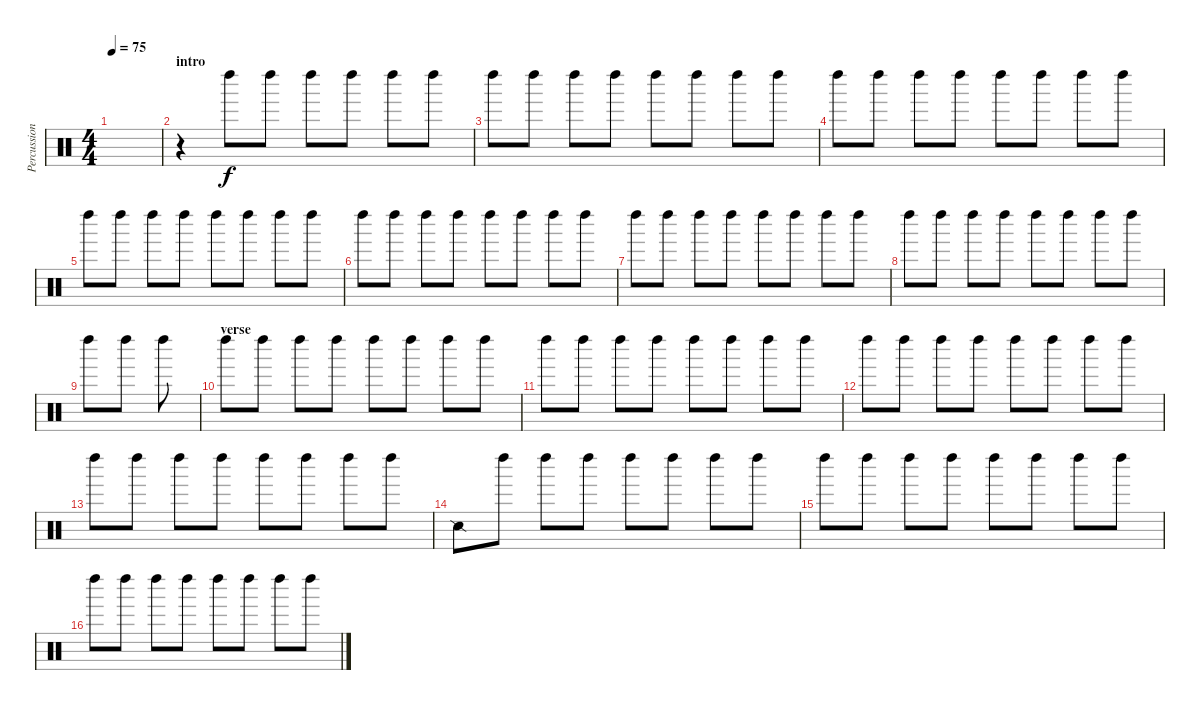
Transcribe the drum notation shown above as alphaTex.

\track ("Percussion2" "Percussion") {instrument percussion}
\staff {score}
\articulation defaults
\ts (4 4)
\tempo 75
\clef neutral
\ks c
|
\section ("" "intro")
r.4 "Left Maraca (hit)".8 "Left Maraca (hit)".8 "Left Maraca (hit)".8 "Left Maraca (hit)".8 "Left Maraca (hit)".8 "Left Maraca (hit)".8 |
"Left Maraca (hit)".8 "Left Maraca (hit)".8 "Left Maraca (hit)".8 "Left Maraca (hit)".8 "Left Maraca (hit)".8 "Left Maraca (hit)".8 "Left Maraca (hit)".8 "Left Maraca (hit)".8 |
"Left Maraca (hit)".8 "Left Maraca (hit)".8 "Left Maraca (hit)".8 "Left Maraca (hit)".8 "Left Maraca (hit)".8 "Left Maraca (hit)".8 "Left Maraca (hit)".8 "Left Maraca (hit)".8 |
"Left Maraca (hit)".8 "Left Maraca (hit)".8 "Left Maraca (hit)".8 "Left Maraca (hit)".8 "Left Maraca (hit)".8 "Left Maraca (hit)".8 "Left Maraca (hit)".8 "Left Maraca (hit)".8 |
"Left Maraca (hit)".8 "Left Maraca (hit)".8 "Left Maraca (hit)".8 "Left Maraca (hit)".8 "Left Maraca (hit)".8 "Left Maraca (hit)".8 "Left Maraca (hit)".8 "Left Maraca (hit)".8 |
"Left Maraca (hit)".8 "Left Maraca (hit)".8 "Left Maraca (hit)".8 "Left Maraca (hit)".8 "Left Maraca (hit)".8 "Left Maraca (hit)".8 "Left Maraca (hit)".8 "Left Maraca (hit)".8 |
"Left Maraca (hit)".8 "Left Maraca (hit)".8 "Left Maraca (hit)".8 "Left Maraca (hit)".8 "Left Maraca (hit)".8 "Left Maraca (hit)".8 "Left Maraca (hit)".8 "Left Maraca (hit)".8 |
"Left Maraca (hit)".8 "Left Maraca (hit)".8 "Left Maraca (hit)".8 |
\section ("" "verse")
"Left Maraca (hit)".8 "Left Maraca (hit)".8 "Left Maraca (hit)".8 "Left Maraca (hit)".8 "Left Maraca (hit)".8 "Left Maraca (hit)".8 "Left Maraca (hit)".8 "Left Maraca (hit)".8 |
"Left Maraca (hit)".8 "Left Maraca (hit)".8 "Left Maraca (hit)".8 "Left Maraca (hit)".8 "Left Maraca (hit)".8 "Left Maraca (hit)".8 "Left Maraca (hit)".8 "Left Maraca (hit)".8 |
"Left Maraca (hit)".8 "Left Maraca (hit)".8 "Left Maraca (hit)".8 "Left Maraca (hit)".8 "Left Maraca (hit)".8 "Left Maraca (hit)".8 "Left Maraca (hit)".8 "Left Maraca (hit)".8 |
"Left Maraca (hit)".8 "Left Maraca (hit)".8 "Left Maraca (hit)".8 "Left Maraca (hit)".8 "Left Maraca (hit)".8 "Left Maraca (hit)".8 "Left Maraca (hit)".8 "Left Maraca (hit)".8 |
\section ("" "")
"Snare (side stick) 2".8 "Left Maraca (hit)".8 "Left Maraca (hit)".8 "Left Maraca (hit)".8 "Left Maraca (hit)".8 "Left Maraca (hit)".8 "Left Maraca (hit)".8 "Left Maraca (hit)".8 |
"Left Maraca (hit)".8 "Left Maraca (hit)".8 "Left Maraca (hit)".8 "Left Maraca (hit)".8 "Left Maraca (hit)".8 "Left Maraca (hit)".8 "Left Maraca (hit)".8 "Left Maraca (hit)".8 |
"Left Maraca (hit)".8 "Left Maraca (hit)".8 "Left Maraca (hit)".8 "Left Maraca (hit)".8 "Left Maraca (hit)".8 "Left Maraca (hit)".8 "Left Maraca (hit)".8 "Left Maraca (hit)".8
